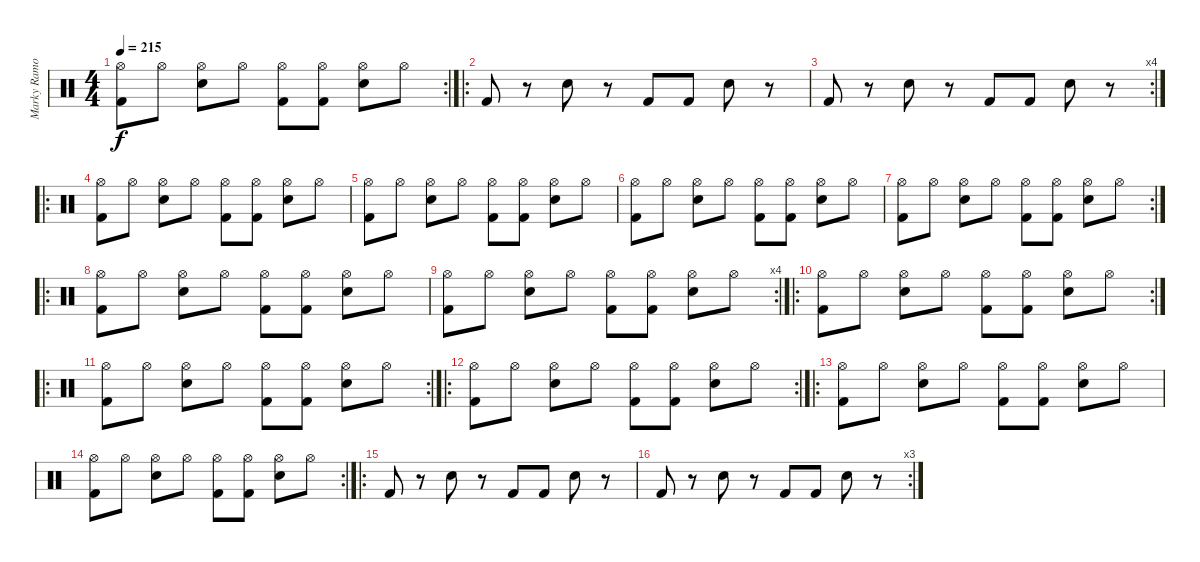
\track ("Marky Ramone (Drums)" "Marky Ramo") {instrument percussion}
\staff {score}
\articulation defaults
\rc 2
\ts (4 4)
\tempo 215
\clef neutral
\ks c
("Kick (hit) 2" "Hi-Hat (open)").8{dy f} "Hi-Hat (open)".8 ("Electric Snare (hit)" "Hi-Hat (open)").8 "Hi-Hat (open)".8 ("Kick (hit) 2" "Hi-Hat (open)").8 ("Kick (hit) 2" "Hi-Hat (open)").8 ("Electric Snare (hit)" "Hi-Hat (open)").8 "Hi-Hat (open)".8 |
\ro "Kick (hit) 2".8
r.8 "Electric Snare (hit)".8 r.8 "Kick (hit) 2".8 "Kick (hit) 2".8 "Electric Snare (hit)".8 r.8 |
\rc 4 "Kick (hit) 2".8
r.8 "Electric Snare (hit)".8 r.8 "Kick (hit) 2".8 "Kick (hit) 2".8 "Electric Snare (hit)".8 r.8 |
\ro
("Kick (hit) 2" "Hi-Hat (open)").8 "Hi-Hat (open)".8 ("Electric Snare (hit)" "Hi-Hat (open)").8 "Hi-Hat (open)".8 ("Kick (hit) 2" "Hi-Hat (open)").8 ("Kick (hit) 2" "Hi-Hat (open)").8 ("Electric Snare (hit)" "Hi-Hat (open)").8 "Hi-Hat (open)".8 |
("Kick (hit) 2" "Hi-Hat (open)").8 "Hi-Hat (open)".8 ("Electric Snare (hit)" "Hi-Hat (open)").8 "Hi-Hat (open)".8 ("Kick (hit) 2" "Hi-Hat (open)").8 ("Kick (hit) 2" "Hi-Hat (open)").8 ("Electric Snare (hit)" "Hi-Hat (open)").8 "Hi-Hat (open)".8 |
("Kick (hit) 2" "Hi-Hat (open)").8 "Hi-Hat (open)".8 ("Electric Snare (hit)" "Hi-Hat (open)").8 "Hi-Hat (open)".8 ("Kick (hit) 2" "Hi-Hat (open)").8 ("Kick (hit) 2" "Hi-Hat (open)").8 ("Electric Snare (hit)" "Hi-Hat (open)").8 "Hi-Hat (open)".8 |
\rc 2
("Kick (hit) 2" "Hi-Hat (open)").8 "Hi-Hat (open)".8 ("Electric Snare (hit)" "Hi-Hat (open)").8 "Hi-Hat (open)".8 ("Kick (hit) 2" "Hi-Hat (open)").8 ("Kick (hit) 2" "Hi-Hat (open)").8 ("Electric Snare (hit)" "Hi-Hat (open)").8 "Hi-Hat (open)".8 |
\ro
("Kick (hit) 2" "Hi-Hat (open)").8 "Hi-Hat (open)".8 ("Electric Snare (hit)" "Hi-Hat (open)").8 "Hi-Hat (open)".8 ("Kick (hit) 2" "Hi-Hat (open)").8 ("Kick (hit) 2" "Hi-Hat (open)").8 ("Electric Snare (hit)" "Hi-Hat (open)").8 "Hi-Hat (open)".8 |
\rc 4
("Kick (hit) 2" "Hi-Hat (open)").8 "Hi-Hat (open)".8 ("Electric Snare (hit)" "Hi-Hat (open)").8 "Hi-Hat (open)".8 ("Kick (hit) 2" "Hi-Hat (open)").8 ("Kick (hit) 2" "Hi-Hat (open)").8 ("Electric Snare (hit)" "Hi-Hat (open)").8 "Hi-Hat (open)".8 |
\ro
\rc 2
("Kick (hit) 2" "Hi-Hat (open)").8 "Hi-Hat (open)".8 ("Electric Snare (hit)" "Hi-Hat (open)").8 "Hi-Hat (open)".8 ("Kick (hit) 2" "Hi-Hat (open)").8 ("Kick (hit) 2" "Hi-Hat (open)").8 ("Electric Snare (hit)" "Hi-Hat (open)").8 "Hi-Hat (open)".8 |
\ro
\rc 2
("Kick (hit) 2" "Hi-Hat (open)").8 "Hi-Hat (open)".8 ("Electric Snare (hit)" "Hi-Hat (open)").8 "Hi-Hat (open)".8 ("Kick (hit) 2" "Hi-Hat (open)").8 ("Kick (hit) 2" "Hi-Hat (open)").8 ("Electric Snare (hit)" "Hi-Hat (open)").8 "Hi-Hat (open)".8 |
\ro
\rc 2
("Kick (hit) 2" "Hi-Hat (open)").8 "Hi-Hat (open)".8 ("Electric Snare (hit)" "Hi-Hat (open)").8 "Hi-Hat (open)".8 ("Kick (hit) 2" "Hi-Hat (open)").8 ("Kick (hit) 2" "Hi-Hat (open)").8 ("Electric Snare (hit)" "Hi-Hat (open)").8 "Hi-Hat (open)".8 |
\ro
("Kick (hit) 2" "Hi-Hat (open)").8 "Hi-Hat (open)".8 ("Electric Snare (hit)" "Hi-Hat (open)").8 "Hi-Hat (open)".8 ("Kick (hit) 2" "Hi-Hat (open)").8 ("Kick (hit) 2" "Hi-Hat (open)").8 ("Electric Snare (hit)" "Hi-Hat (open)").8 "Hi-Hat (open)".8 |
\rc 2
("Kick (hit) 2" "Hi-Hat (open)").8 "Hi-Hat (open)".8 ("Electric Snare (hit)" "Hi-Hat (open)").8 "Hi-Hat (open)".8 ("Kick (hit) 2" "Hi-Hat (open)").8 ("Kick (hit) 2" "Hi-Hat (open)").8 ("Electric Snare (hit)" "Hi-Hat (open)").8 "Hi-Hat (open)".8 |
\ro "Kick (hit) 2".8
r.8 "Electric Snare (hit)".8 r.8 "Kick (hit) 2".8 "Kick (hit) 2".8 "Electric Snare (hit)".8 r.8 |
\rc 3 "Kick (hit) 2".8
r.8 "Electric Snare (hit)".8 r.8 "Kick (hit) 2".8 "Kick (hit) 2".8 "Electric Snare (hit)".8 r.8
